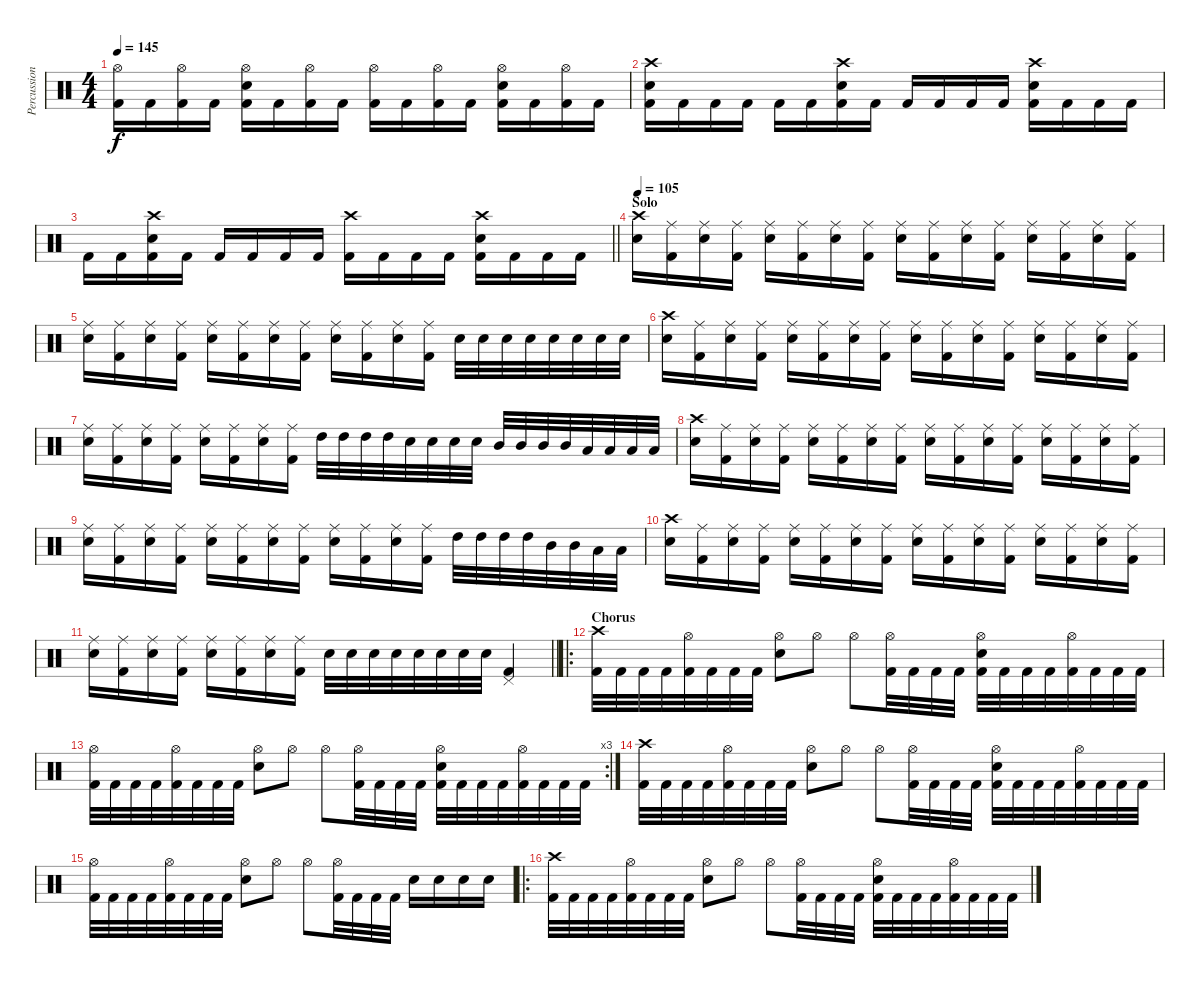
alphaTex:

\track ("Percussion" "Percussion") {instrument percussion}
\staff {score}
\articulation defaults
\ts (4 4)
\tempo 145
\clef neutral
\ks c
("Hi-Hat (open)" "Kick (hit) 2").16{dy f} "Kick (hit) 2".16 ("Hi-Hat (open)" "Kick (hit) 2").16 "Kick (hit) 2".16 ("Hi-Hat (open)" "Snare (hit) 2" "Kick (hit) 2").16 "Kick (hit) 2".16 ("Hi-Hat (open)" "Kick (hit) 2").16 "Kick (hit) 2".16 ("Hi-Hat (open)" "Kick (hit) 2").16 "Kick (hit) 2".16 ("Hi-Hat (open)" "Kick (hit) 2").16 "Kick (hit) 2".16 ("Hi-Hat (open)" "Snare (hit) 2" "Kick (hit) 2").16 "Kick (hit) 2".16 ("Hi-Hat (open)" "Kick (hit) 2").16 "Kick (hit) 2".16 |
("Crash high (hit)" "Snare (hit) 2" "Kick (hit) 2").16 "Kick (hit) 2".16 "Kick (hit) 2".16 "Kick (hit) 2".16 "Kick (hit) 2".16 "Kick (hit) 2".16 ("Crash high (hit)" "Snare (hit) 2" "Kick (hit) 2").16 "Kick (hit) 2".16 "Kick (hit) 2".16 "Kick (hit) 2".16 "Kick (hit) 2".16 "Kick (hit) 2".16 ("Crash high (hit)" "Snare (hit) 2" "Kick (hit) 2").16 "Kick (hit) 2".16 "Kick (hit) 2".16 "Kick (hit) 2".16 |
\barLineRight lightlight "Kick (hit) 2".16 "Kick (hit) 2".16
("Crash high (hit)" "Snare (hit) 2" "Kick (hit) 2").16 "Kick (hit) 2".16 "Kick (hit) 2".16 "Kick (hit) 2".16 "Kick (hit) 2".16 "Kick (hit) 2".16 ("Crash high (hit)" "Kick (hit) 2").16 "Kick (hit) 2".16 "Kick (hit) 2".16 "Kick (hit) 2".16 ("Crash high (hit)" "Snare (hit) 2" "Kick (hit) 2").16 "Kick (hit) 2".16 "Kick (hit) 2".16 "Kick (hit) 2".16 |
\section ("" "Solo")
\tempo 100
\tempo 105
("Crash high (hit)" "Snare (hit) 2").16 ("Ride (middle)" "Kick (hit) 2").16 ("Ride (middle)" "Snare (hit) 2").16 ("Ride (middle)" "Kick (hit) 2").16 ("Ride (middle)" "Snare (hit) 2").16 ("Ride (middle)" "Kick (hit) 2").16 ("Ride (middle)" "Snare (hit) 2").16 ("Ride (middle)" "Kick (hit) 2").16 ("Ride (middle)" "Snare (hit) 2").16 ("Ride (middle)" "Kick (hit) 2").16 ("Ride (middle)" "Snare (hit) 2").16 ("Ride (middle)" "Kick (hit) 2").16 ("Ride (middle)" "Snare (hit) 2").16 ("Ride (middle)" "Kick (hit) 2").16 ("Ride (middle)" "Snare (hit) 2").16 ("Ride (middle)" "Kick (hit) 2").16 |
("Ride (middle)" "Snare (hit) 2").16 ("Ride (middle)" "Kick (hit) 2").16 ("Ride (middle)" "Snare (hit) 2").16 ("Ride (middle)" "Kick (hit) 2").16 ("Ride (middle)" "Snare (hit) 2").16 ("Ride (middle)" "Kick (hit) 2").16 ("Ride (middle)" "Snare (hit) 2").16 ("Ride (middle)" "Kick (hit) 2").16 ("Ride (middle)" "Snare (hit) 2").16 ("Ride (middle)" "Kick (hit) 2").16 ("Ride (middle)" "Snare (hit) 2").16 ("Ride (middle)" "Kick (hit) 2").16 "Snare (hit) 2".32 "Snare (hit) 2".32 "Snare (hit) 2".32 "Snare (hit) 2".32 "Snare (hit) 2".32 "Snare (hit) 2".32 "Snare (hit) 2".32 "Snare (hit) 2".32 |
("Crash high (hit)" "Snare (hit) 2").16 ("Ride (middle)" "Kick (hit) 2").16 ("Ride (middle)" "Snare (hit) 2").16 ("Ride (middle)" "Kick (hit) 2").16 ("Ride (middle)" "Snare (hit) 2").16 ("Ride (middle)" "Kick (hit) 2").16 ("Ride (middle)" "Snare (hit) 2").16 ("Ride (middle)" "Kick (hit) 2").16 ("Ride (middle)" "Snare (hit) 2").16 ("Ride (middle)" "Kick (hit) 2").16 ("Ride (middle)" "Snare (hit) 2").16 ("Ride (middle)" "Kick (hit) 2").16 ("Ride (middle)" "Snare (hit) 2").16 ("Ride (middle)" "Kick (hit) 2").16 ("Ride (middle)" "Snare (hit) 2").16 ("Ride (middle)" "Kick (hit) 2").16 |
("Ride (middle)" "Snare (hit) 2").16 ("Ride (middle)" "Kick (hit) 2").16 ("Ride (middle)" "Snare (hit) 2").16 ("Ride (middle)" "Kick (hit) 2").16 ("Ride (middle)" "Snare (hit) 2").16 ("Ride (middle)" "Kick (hit) 2").16 ("Ride (middle)" "Snare (hit) 2").16 ("Ride (middle)" "Kick (hit) 2").16 "High Tom (hit)".32 "High Tom (hit)".32 "High Tom (hit)".32 "High Tom (hit)".32 "Snare (hit) 2".32 "Snare (hit) 2".32 "Snare (hit) 2".32 "Snare (hit) 2".32 "Mid Tom (hit)".32 "Mid Tom (hit)".32 "Mid Tom (hit)".32 "Mid Tom (hit)".32 "Low Tom (hit)".32 "Low Tom (hit)".32 "Low Tom (hit)".32 "Low Tom (hit)".32 |
("Crash high (hit)" "Snare (hit) 2").16 ("Ride (middle)" "Kick (hit) 2").16 ("Ride (middle)" "Snare (hit) 2").16 ("Ride (middle)" "Kick (hit) 2").16 ("Ride (middle)" "Snare (hit) 2").16 ("Ride (middle)" "Kick (hit) 2").16 ("Ride (middle)" "Snare (hit) 2").16 ("Ride (middle)" "Kick (hit) 2").16 ("Ride (middle)" "Snare (hit) 2").16 ("Ride (middle)" "Kick (hit) 2").16 ("Ride (middle)" "Snare (hit) 2").16 ("Ride (middle)" "Kick (hit) 2").16 ("Ride (middle)" "Snare (hit) 2").16 ("Ride (middle)" "Kick (hit) 2").16 ("Ride (middle)" "Snare (hit) 2").16 ("Ride (middle)" "Kick (hit) 2").16 |
("Ride (middle)" "Snare (hit) 2").16 ("Ride (middle)" "Kick (hit) 2").16 ("Ride (middle)" "Snare (hit) 2").16 ("Ride (middle)" "Kick (hit) 2").16 ("Ride (middle)" "Snare (hit) 2").16 ("Ride (middle)" "Kick (hit) 2").16 ("Ride (middle)" "Snare (hit) 2").16 ("Ride (middle)" "Kick (hit) 2").16 ("Ride (middle)" "Snare (hit) 2").16 ("Ride (middle)" "Kick (hit) 2").16 ("Ride (middle)" "Snare (hit) 2").16 ("Ride (middle)" "Kick (hit) 2").16 "High Tom (hit)".32 "High Tom (hit)".32 "High Tom (hit)".32 "High Tom (hit)".32 "Mid Tom (hit)".32 "Mid Tom (hit)".32 "Low Tom (hit)".32 "Low Tom (hit)".32 |
("Crash high (hit)" "Snare (hit) 2").16 ("Ride (middle)" "Kick (hit) 2").16 ("Ride (middle)" "Snare (hit) 2").16 ("Ride (middle)" "Kick (hit) 2").16 ("Ride (middle)" "Snare (hit) 2").16 ("Ride (middle)" "Kick (hit) 2").16 ("Ride (middle)" "Snare (hit) 2").16 ("Ride (middle)" "Kick (hit) 2").16 ("Ride (middle)" "Snare (hit) 2").16 ("Ride (middle)" "Kick (hit) 2").16 ("Ride (middle)" "Snare (hit) 2").16 ("Ride (middle)" "Kick (hit) 2").16 ("Ride (middle)" "Snare (hit) 2").16 ("Ride (middle)" "Kick (hit) 2").16 ("Ride (middle)" "Snare (hit) 2").16 ("Ride (middle)" "Kick (hit) 2").16 |
\barLineRight lightlight
("Ride (middle)" "Snare (hit) 2").16 ("Ride (middle)" "Kick (hit) 2").16 ("Ride (middle)" "Snare (hit) 2").16 ("Ride (middle)" "Kick (hit) 2").16 ("Ride (middle)" "Snare (hit) 2").16 ("Ride (middle)" "Kick (hit) 2").16 ("Ride (middle)" "Snare (hit) 2").16 ("Ride (middle)" "Kick (hit) 2").16 "Snare (hit) 2".32 "Snare (hit) 2".32 "Snare (hit) 2".32 "Snare (hit) 2".32 "Snare (hit) 2".32 "Snare (hit) 2".32 "Snare (hit) 2".32 "Snare (hit) 2".32 ("Pedal Hi-Hat (hit)" "Kick (hit) 2").4 |
\ro
\section ("" "Chorus")
("Crash high (hit)" "Kick (hit) 2").32 "Kick (hit) 2".32 "Kick (hit) 2".32 "Kick (hit) 2".32 ("Hi-Hat (open)" "Kick (hit) 2").32 "Kick (hit) 2".32 "Kick (hit) 2".32 "Kick (hit) 2".32 ("Hi-Hat (open)" "Snare (hit) 2").8 "Hi-Hat (open)".8 "Hi-Hat (open)".8 ("Hi-Hat (open)" "Kick (hit) 2").32 "Kick (hit) 2".32 "Kick (hit) 2".32 "Kick (hit) 2".32 ("Hi-Hat (open)" "Snare (hit) 2" "Kick (hit) 2").32 "Kick (hit) 2".32 "Kick (hit) 2".32 "Kick (hit) 2".32 ("Hi-Hat (open)" "Kick (hit) 2").32 "Kick (hit) 2".32 "Kick (hit) 2".32 "Kick (hit) 2".32 |
\rc 3
("Hi-Hat (open)" "Kick (hit) 2").32 "Kick (hit) 2".32 "Kick (hit) 2".32 "Kick (hit) 2".32 ("Hi-Hat (open)" "Kick (hit) 2").32 "Kick (hit) 2".32 "Kick (hit) 2".32 "Kick (hit) 2".32 ("Hi-Hat (open)" "Snare (hit) 2").8 "Hi-Hat (open)".8 "Hi-Hat (open)".8 ("Hi-Hat (open)" "Kick (hit) 2").32 "Kick (hit) 2".32 "Kick (hit) 2".32 "Kick (hit) 2".32 ("Hi-Hat (open)" "Snare (hit) 2" "Kick (hit) 2").32 "Kick (hit) 2".32 "Kick (hit) 2".32 "Kick (hit) 2".32 ("Hi-Hat (open)" "Kick (hit) 2").32 "Kick (hit) 2".32 "Kick (hit) 2".32 "Kick (hit) 2".32 |
("Crash high (hit)" "Kick (hit) 2").32 "Kick (hit) 2".32 "Kick (hit) 2".32 "Kick (hit) 2".32 ("Hi-Hat (open)" "Kick (hit) 2").32 "Kick (hit) 2".32 "Kick (hit) 2".32 "Kick (hit) 2".32 ("Hi-Hat (open)" "Snare (hit) 2").8 "Hi-Hat (open)".8 "Hi-Hat (open)".8 ("Hi-Hat (open)" "Kick (hit) 2").32 "Kick (hit) 2".32 "Kick (hit) 2".32 "Kick (hit) 2".32 ("Hi-Hat (open)" "Snare (hit) 2" "Kick (hit) 2").32 "Kick (hit) 2".32 "Kick (hit) 2".32 "Kick (hit) 2".32 ("Hi-Hat (open)" "Kick (hit) 2").32 "Kick (hit) 2".32 "Kick (hit) 2".32 "Kick (hit) 2".32 |
("Hi-Hat (open)" "Kick (hit) 2").32 "Kick (hit) 2".32 "Kick (hit) 2".32 "Kick (hit) 2".32 ("Hi-Hat (open)" "Kick (hit) 2").32 "Kick (hit) 2".32 "Kick (hit) 2".32 "Kick (hit) 2".32 ("Hi-Hat (open)" "Snare (hit) 2").8 "Hi-Hat (open)".8 "Hi-Hat (open)".8 ("Hi-Hat (open)" "Kick (hit) 2").32 "Kick (hit) 2".32 "Kick (hit) 2".32 "Kick (hit) 2".32 "Snare (hit) 2".16 "Snare (hit) 2".16 "Snare (hit) 2".16 "Snare (hit) 2".16 |
\ro
("Crash high (hit)" "Kick (hit) 2").32 "Kick (hit) 2".32 "Kick (hit) 2".32 "Kick (hit) 2".32 ("Hi-Hat (open)" "Kick (hit) 2").32 "Kick (hit) 2".32 "Kick (hit) 2".32 "Kick (hit) 2".32 ("Hi-Hat (open)" "Snare (hit) 2").8 "Hi-Hat (open)".8 "Hi-Hat (open)".8 ("Hi-Hat (open)" "Kick (hit) 2").32 "Kick (hit) 2".32 "Kick (hit) 2".32 "Kick (hit) 2".32 ("Hi-Hat (open)" "Snare (hit) 2" "Kick (hit) 2").32 "Kick (hit) 2".32 "Kick (hit) 2".32 "Kick (hit) 2".32 ("Hi-Hat (open)" "Kick (hit) 2").32 "Kick (hit) 2".32 "Kick (hit) 2".32 "Kick (hit) 2".32
